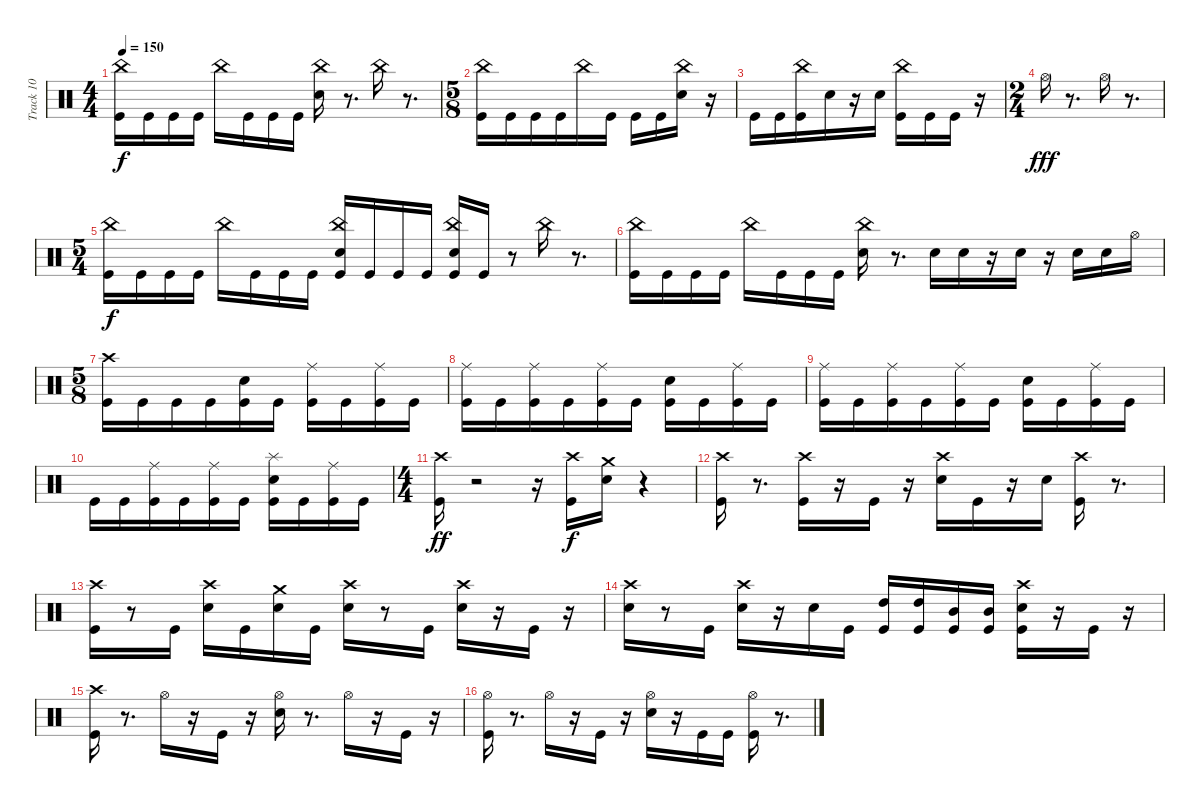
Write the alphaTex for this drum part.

\track ("Track 10" "Track 10") {instrument percussion}
\staff {score}
\articulation defaults
\ts (4 4)
\tempo 150
\clef neutral
\ks c
("Kick (hit)" "China (hit)").16{dy f} "Kick (hit)".16 "Kick (hit)".16 "Kick (hit)".16 "China (hit)".16 "Kick (hit)".16 "Kick (hit)".16 "Kick (hit)".16 ("Snare (hit) 2" "China (hit)").16 r.8{d} "China (hit)".16 r.8{d} |
\ts (5 8)
("Kick (hit)" "China (hit)").16 "Kick (hit)".16 "Kick (hit)".16 "Kick (hit)".16 "China (hit)".16 "Kick (hit)".16 "Kick (hit)".16 "Kick (hit)".16 ("Snare (hit) 2" "China (hit)").16 r.16 |
"Kick (hit)".16 "Kick (hit)".16 ("Kick (hit)" "China (hit)").16 "Snare (hit) 2".16 r.16 "Snare (hit) 2".16 ("Kick (hit)" "China (hit)").16 "Kick (hit)".16 "Kick (hit)".16 r.16 |
\ts (2 4)
"Hi-Hat (open)".16{dy fff} r.8{d} "Hi-Hat (open)".16 r.8{d} |
\ts (5 4)
("Kick (hit)" "China (hit)").16{dy f} "Kick (hit)".16 "Kick (hit)".16 "Kick (hit)".16 "China (hit)".16 "Kick (hit)".16 "Kick (hit)".16 "Kick (hit)".16 ("Kick (hit)" "Snare (hit) 2" "China (hit)").16 "Kick (hit)".16 "Kick (hit)".16 "Kick (hit)".16 ("Kick (hit)" "Snare (hit) 2" "China (hit)").16 "Kick (hit)".16 r.8 "China (hit)".16 r.8{d} |
("Kick (hit)" "China (hit)").16 "Kick (hit)".16 "Kick (hit)".16 "Kick (hit)".16 "China (hit)".16 "Kick (hit)".16 "Kick (hit)".16 "Kick (hit)".16 ("Snare (hit) 2" "China (hit)").16 r.8{d} "Snare (hit) 2".16 "Snare (hit) 2".16 r.16 "Snare (hit) 2".16 r.16 "Snare (hit) 2".16 "Snare (hit) 2".16 "Hi-Hat (open)".16 |
\ts (5 8)
("Kick (hit)" "Crash high (hit)").16 "Kick (hit)".16 "Kick (hit)".16 "Kick (hit)".16 ("Kick (hit)" "Snare (hit) 2").16 "Kick (hit)".16 ("Kick (hit)" "Ride (middle)").16 "Kick (hit)".16 ("Kick (hit)" "Ride (middle)").16 "Kick (hit)".16 |
("Kick (hit)" "Ride (middle)").16 "Kick (hit)".16 ("Kick (hit)" "Ride (middle)").16 "Kick (hit)".16 ("Kick (hit)" "Ride (middle)").16 "Kick (hit)".16 ("Kick (hit)" "Snare (hit) 2").16 "Kick (hit)".16 ("Kick (hit)" "Ride (middle)").16 "Kick (hit)".16 |
("Kick (hit)" "Ride (middle)").16 "Kick (hit)".16 ("Kick (hit)" "Ride (middle)").16 "Kick (hit)".16 ("Kick (hit)" "Ride (middle)").16 "Kick (hit)".16 ("Kick (hit)" "Snare (hit) 2").16 "Kick (hit)".16 ("Kick (hit)" "Ride (middle)").16 "Kick (hit)".16 |
"Kick (hit)".16 "Kick (hit)".16 ("Kick (hit)" "Ride (middle)").16 "Kick (hit)".16 ("Kick (hit)" "Ride (middle)").16 "Kick (hit)".16 ("Kick (hit)" "Snare (hit) 2" "Splash (hit)").16 "Kick (hit)".16 ("Kick (hit)" "Ride (middle)").16 "Kick (hit)".16 |
\ts (4 4)
("Kick (hit)" "Crash high (hit)").16{dy ff} r.2 r.16 ("Kick (hit)" "Crash high (hit)").16{dy f} ("Snare (hit) 2" "Crash medium (hit)").16 r.4 |
("Kick (hit)" "Crash high (hit)").16 r.8{d} ("Kick (hit)" "Crash high (hit)").16 r.16 "Kick (hit)".16 r.16 ("Snare (hit) 2" "Crash high (hit)").16 "Kick (hit)".16 r.16 "Snare (hit) 2".16 ("Kick (hit)" "Crash high (hit)").16 r.8{d} |
("Kick (hit)" "Crash high (hit)").16 r.8 "Kick (hit)".16 ("Snare (hit) 2" "Crash high (hit)").16 "Kick (hit)".16 ("Snare (hit) 2" "Crash medium (hit)").16 "Kick (hit)".16 ("Snare (hit) 2" "Crash high (hit)").16 r.8 "Kick (hit)".16 ("Snare (hit) 2" "Crash high (hit)").16 r.16 "Kick (hit)".16 r.16 |
("Snare (hit) 2" "Crash high (hit)").16 r.8 "Kick (hit)".16 ("Snare (hit) 2" "Crash high (hit)").16 r.16 "Snare (hit) 2".16 "Kick (hit)".16 ("Kick (hit)" "High Tom (hit)").16 ("Kick (hit)" "High Tom (hit)").16 ("Kick (hit)" "Mid Tom (hit)").16 ("Kick (hit)" "Mid Tom (hit)").16 ("Kick (hit)" "Snare (hit) 2" "Crash high (hit)").16 r.16 "Kick (hit)".16 r.16 |
("Kick (hit)" "Crash high (hit)").16 r.8{d} "Hi-Hat (open)".16 r.16 "Kick (hit)".16 r.16 ("Snare (hit) 2" "Hi-Hat (open)").16 r.8{d} "Hi-Hat (open)".16 r.16 "Kick (hit)".16 r.16 |
("Kick (hit)" "Hi-Hat (open)").16 r.8{d} "Hi-Hat (open)".16 r.16 "Kick (hit)".16 r.16 ("Snare (hit) 2" "Hi-Hat (open)").16 r.16 "Kick (hit)".16 "Kick (hit)".16 ("Kick (hit)" "Hi-Hat (open)").16 r.8{d}
